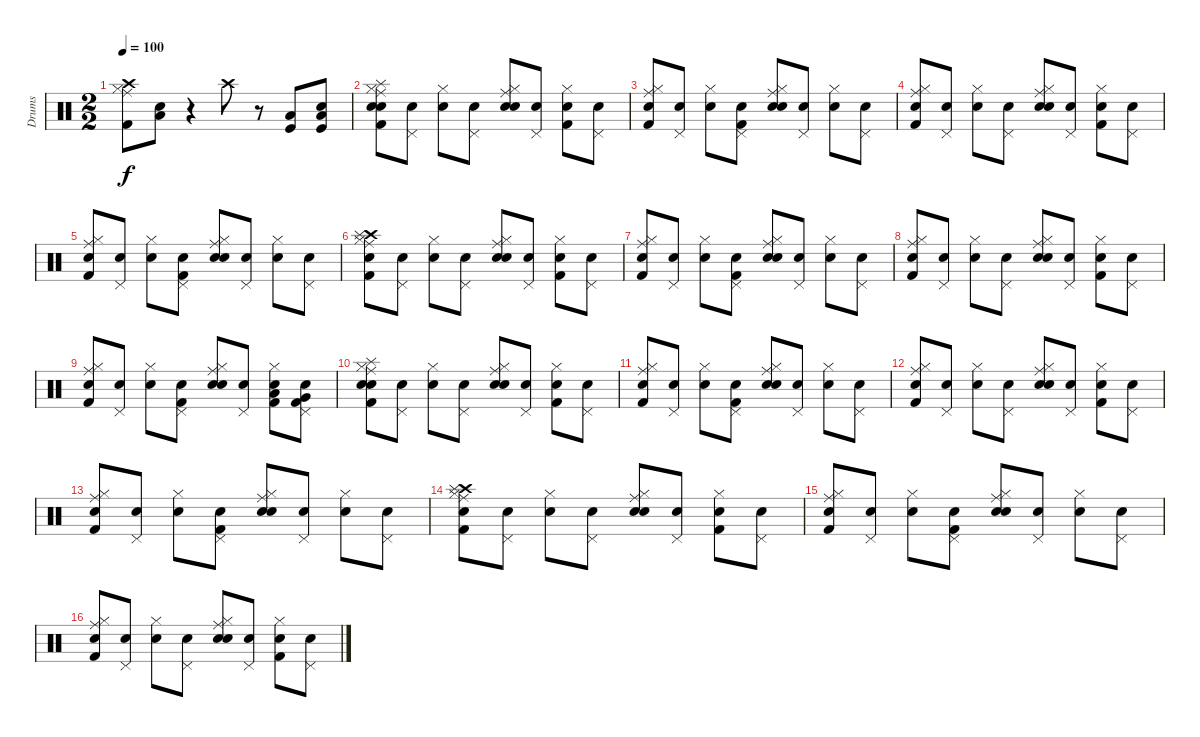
\track ("Drums" "Drums") {instrument percussion}
\staff {score}
\articulation defaults
\ts (2 2)
\tempo 100
\clef neutral
\ks c
("Crash high (hit)" "Ride (middle)" "Hi-Hat (closed)" "Kick (hit) 2").8{dy f} ("Snare (hit)" "Low Tom (hit)").8 r.4 "Crash high (hit)".8 r.8 ("Kick (hit)" "Low Tom (hit)").8 ("Snare (hit)" "Kick (hit)" "Low Tom (hit)").8 |
("Snare (hit)" "Ride (middle)" "Hi-Hat (closed)" "Kick (hit) 2" "Snare (hit) 2" "Splash (hit)").8 ("Snare (hit)" "Pedal Hi-Hat (hit)").8 ("Snare (hit)" "Hi-Hat (closed)").8 ("Snare (hit)" "Pedal Hi-Hat (hit)").8 ("Snare (hit)" "Ride (middle)" "Hi-Hat (closed)" "Snare (hit) 2").8 ("Snare (hit)" "Pedal Hi-Hat (hit)").8 ("Snare (hit)" "Hi-Hat (closed)" "Kick (hit) 2").8 ("Snare (hit)" "Pedal Hi-Hat (hit)").8 |
("Snare (hit)" "Ride (middle)" "Hi-Hat (closed)" "Kick (hit) 2").8 ("Snare (hit)" "Pedal Hi-Hat (hit)").8 ("Snare (hit)" "Hi-Hat (closed)").8 ("Snare (hit)" "Pedal Hi-Hat (hit)" "Kick (hit) 2").8 ("Snare (hit)" "Ride (middle)" "Hi-Hat (closed)" "Snare (hit) 2").8 ("Snare (hit)" "Pedal Hi-Hat (hit)").8 ("Snare (hit)" "Hi-Hat (closed)").8 ("Snare (hit)" "Pedal Hi-Hat (hit)").8 |
("Snare (hit)" "Kick (hit) 2" "Ride (middle)" "Hi-Hat (closed)").8 ("Snare (hit)" "Pedal Hi-Hat (hit)").8 ("Snare (hit)" "Hi-Hat (closed)").8 ("Snare (hit)" "Pedal Hi-Hat (hit)").8 ("Snare (hit)" "Ride (middle)" "Hi-Hat (closed)" "Snare (hit) 2").8 ("Snare (hit)" "Pedal Hi-Hat (hit)").8 ("Snare (hit)" "Hi-Hat (closed)" "Kick (hit) 2").8 ("Snare (hit)" "Pedal Hi-Hat (hit)").8 |
("Snare (hit)" "Ride (middle)" "Hi-Hat (closed)" "Kick (hit) 2").8 ("Snare (hit)" "Pedal Hi-Hat (hit)").8 ("Snare (hit)" "Hi-Hat (closed)").8 ("Snare (hit)" "Pedal Hi-Hat (hit)" "Kick (hit) 2").8 ("Snare (hit)" "Ride (middle)" "Hi-Hat (closed)" "Snare (hit) 2").8 ("Snare (hit)" "Pedal Hi-Hat (hit)").8 ("Snare (hit)" "Hi-Hat (closed)").8 ("Snare (hit)" "Pedal Hi-Hat (hit)").8 |
("Snare (hit)" "Hi-Hat (closed)" "Ride (middle)" "Kick (hit) 2" "Crash high (hit)" "Splash (hit)").8 ("Snare (hit)" "Pedal Hi-Hat (hit)").8 ("Snare (hit)" "Hi-Hat (closed)").8 ("Snare (hit)" "Pedal Hi-Hat (hit)").8 ("Snare (hit)" "Ride (middle)" "Hi-Hat (closed)" "Snare (hit) 2").8 ("Snare (hit)" "Pedal Hi-Hat (hit)").8 ("Snare (hit)" "Hi-Hat (closed)" "Kick (hit) 2").8 ("Snare (hit)" "Pedal Hi-Hat (hit)").8 |
("Snare (hit)" "Ride (middle)" "Hi-Hat (closed)" "Kick (hit) 2").8 ("Snare (hit)" "Pedal Hi-Hat (hit)").8 ("Snare (hit)" "Hi-Hat (closed)").8 ("Snare (hit)" "Pedal Hi-Hat (hit)" "Kick (hit) 2").8 ("Snare (hit)" "Ride (middle)" "Hi-Hat (closed)" "Snare (hit) 2").8 ("Snare (hit)" "Pedal Hi-Hat (hit)").8 ("Snare (hit)" "Hi-Hat (closed)").8 ("Snare (hit)" "Pedal Hi-Hat (hit)").8 |
("Snare (hit)" "Kick (hit) 2" "Ride (middle)" "Hi-Hat (closed)").8 ("Snare (hit)" "Pedal Hi-Hat (hit)").8 ("Snare (hit)" "Hi-Hat (closed)").8 ("Snare (hit)" "Pedal Hi-Hat (hit)").8 ("Snare (hit)" "Ride (middle)" "Hi-Hat (closed)" "Snare (hit) 2").8 ("Snare (hit)" "Pedal Hi-Hat (hit)").8 ("Snare (hit)" "Hi-Hat (closed)" "Kick (hit) 2").8 ("Snare (hit)" "Pedal Hi-Hat (hit)").8 |
("Snare (hit)" "Ride (middle)" "Hi-Hat (closed)" "Kick (hit) 2").8 ("Snare (hit)" "Pedal Hi-Hat (hit)").8 ("Snare (hit)" "Hi-Hat (closed)").8 ("Snare (hit)" "Pedal Hi-Hat (hit)" "Kick (hit) 2").8 ("Snare (hit)" "Ride (middle)" "Hi-Hat (closed)" "Snare (hit) 2").8 ("Snare (hit)" "Pedal Hi-Hat (hit)").8 ("Snare (hit)" "Kick (hit) 2" "Low Tom (hit)" "Hi-Hat (closed)").8 ("Snare (hit)" "Very Low Tom (hit)" "Kick (hit) 2" "Pedal Hi-Hat (hit)").8 |
("Snare (hit)" "Ride (middle)" "Hi-Hat (closed)" "Kick (hit) 2" "Snare (hit) 2" "Splash (hit)").8 ("Snare (hit)" "Pedal Hi-Hat (hit)").8 ("Snare (hit)" "Hi-Hat (closed)").8 ("Snare (hit)" "Pedal Hi-Hat (hit)").8 ("Snare (hit)" "Ride (middle)" "Hi-Hat (closed)" "Snare (hit) 2").8 ("Snare (hit)" "Pedal Hi-Hat (hit)").8 ("Snare (hit)" "Hi-Hat (closed)" "Kick (hit) 2").8 ("Snare (hit)" "Pedal Hi-Hat (hit)").8 |
("Snare (hit)" "Ride (middle)" "Hi-Hat (closed)" "Kick (hit) 2").8 ("Snare (hit)" "Pedal Hi-Hat (hit)").8 ("Snare (hit)" "Hi-Hat (closed)").8 ("Snare (hit)" "Pedal Hi-Hat (hit)" "Kick (hit) 2").8 ("Snare (hit)" "Ride (middle)" "Hi-Hat (closed)" "Snare (hit) 2").8 ("Snare (hit)" "Pedal Hi-Hat (hit)").8 ("Snare (hit)" "Hi-Hat (closed)").8 ("Snare (hit)" "Pedal Hi-Hat (hit)").8 |
("Snare (hit)" "Kick (hit) 2" "Ride (middle)" "Hi-Hat (closed)").8 ("Snare (hit)" "Pedal Hi-Hat (hit)").8 ("Snare (hit)" "Hi-Hat (closed)").8 ("Snare (hit)" "Pedal Hi-Hat (hit)").8 ("Snare (hit)" "Ride (middle)" "Hi-Hat (closed)" "Snare (hit) 2").8 ("Snare (hit)" "Pedal Hi-Hat (hit)").8 ("Snare (hit)" "Hi-Hat (closed)" "Kick (hit) 2").8 ("Snare (hit)" "Pedal Hi-Hat (hit)").8 |
("Snare (hit)" "Ride (middle)" "Hi-Hat (closed)" "Kick (hit) 2").8 ("Snare (hit)" "Pedal Hi-Hat (hit)").8 ("Snare (hit)" "Hi-Hat (closed)").8 ("Snare (hit)" "Pedal Hi-Hat (hit)" "Kick (hit) 2").8 ("Snare (hit)" "Ride (middle)" "Hi-Hat (closed)" "Snare (hit) 2").8 ("Snare (hit)" "Pedal Hi-Hat (hit)").8 ("Snare (hit)" "Hi-Hat (closed)").8 ("Snare (hit)" "Pedal Hi-Hat (hit)").8 |
("Snare (hit)" "Hi-Hat (closed)" "Ride (middle)" "Kick (hit) 2" "Crash high (hit)" "Splash (hit)").8 ("Snare (hit)" "Pedal Hi-Hat (hit)").8 ("Snare (hit)" "Hi-Hat (closed)").8 ("Snare (hit)" "Pedal Hi-Hat (hit)").8 ("Snare (hit)" "Ride (middle)" "Hi-Hat (closed)" "Snare (hit) 2").8 ("Snare (hit)" "Pedal Hi-Hat (hit)").8 ("Snare (hit)" "Hi-Hat (closed)" "Kick (hit) 2").8 ("Snare (hit)" "Pedal Hi-Hat (hit)").8 |
("Snare (hit)" "Ride (middle)" "Hi-Hat (closed)" "Kick (hit) 2").8 ("Snare (hit)" "Pedal Hi-Hat (hit)").8 ("Snare (hit)" "Hi-Hat (closed)").8 ("Snare (hit)" "Pedal Hi-Hat (hit)" "Kick (hit) 2").8 ("Snare (hit)" "Ride (middle)" "Hi-Hat (closed)" "Snare (hit) 2").8 ("Snare (hit)" "Pedal Hi-Hat (hit)").8 ("Snare (hit)" "Hi-Hat (closed)").8 ("Snare (hit)" "Pedal Hi-Hat (hit)").8 |
("Snare (hit)" "Kick (hit) 2" "Ride (middle)" "Hi-Hat (closed)").8 ("Snare (hit)" "Pedal Hi-Hat (hit)").8 ("Snare (hit)" "Hi-Hat (closed)").8 ("Snare (hit)" "Pedal Hi-Hat (hit)").8 ("Snare (hit)" "Ride (middle)" "Hi-Hat (closed)" "Snare (hit) 2").8 ("Snare (hit)" "Pedal Hi-Hat (hit)").8 ("Snare (hit)" "Hi-Hat (closed)" "Kick (hit) 2").8 ("Snare (hit)" "Pedal Hi-Hat (hit)").8
